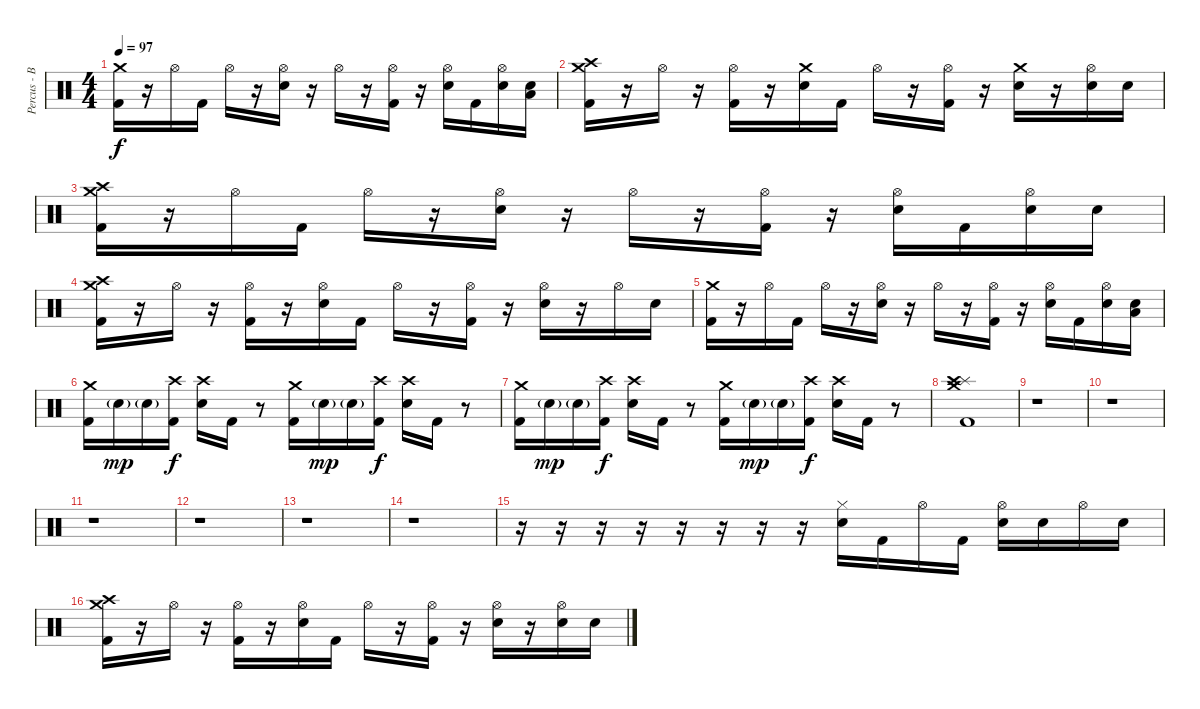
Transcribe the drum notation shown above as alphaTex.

\track ("Percus - Ben" "Percus - B") {instrument percussion}
\staff {score}
\articulation defaults
\ts (4 4)
\tempo 97
\clef neutral
\ks c
("Crash medium (hit)" "Kick (hit) 2").16{dy f} r.16 "Hi-Hat (open)".16 "Kick (hit) 2".16 "Hi-Hat (open)".16 r.16 ("Hi-Hat (open)" "Electric Snare (hit)").16 r.16 "Hi-Hat (open)".16 r.16 ("Hi-Hat (open)" "Kick (hit) 2").16 r.16 ("Hi-Hat (open)" "Electric Snare (hit)").16 "Kick (hit) 2".16 ("Hi-Hat (open)" "Electric Snare (hit)").16 ("Low Tom (hit)" "Electric Snare (hit)").16 |
("Crash high (hit)" "Crash medium (hit)" "Kick (hit) 2").16 r.16 "Hi-Hat (open)".16 r.16 ("Hi-Hat (open)" "Kick (hit) 2").16 r.16 ("Crash medium (hit)" "Electric Snare (hit)").16 "Kick (hit) 2".16 "Hi-Hat (open)".16 r.16 ("Hi-Hat (open)" "Kick (hit) 2").16 r.16 ("Crash medium (hit)" "Electric Snare (hit)").16 r.16 ("Hi-Hat (open)" "Electric Snare (hit)").16 "Electric Snare (hit)".16 |
("Crash high (hit)" "Crash medium (hit)" "Kick (hit) 2").16 r.16 "Hi-Hat (open)".16 "Kick (hit) 2".16 "Hi-Hat (open)".16 r.16 ("Hi-Hat (open)" "Electric Snare (hit)").16 r.16 "Hi-Hat (open)".16 r.16 ("Hi-Hat (open)" "Kick (hit) 2").16 r.16 ("Hi-Hat (open)" "Electric Snare (hit)").16 "Kick (hit) 2".16 ("Hi-Hat (open)" "Electric Snare (hit)").16 "Electric Snare (hit)".16 |
("Crash high (hit)" "Crash medium (hit)" "Kick (hit) 2").16 r.16 "Hi-Hat (open)".16 r.16 ("Hi-Hat (open)" "Kick (hit) 2").16 r.16 ("Hi-Hat (open)" "Electric Snare (hit)").16 "Kick (hit) 2".16 "Hi-Hat (open)".16 r.16 ("Hi-Hat (open)" "Kick (hit) 2").16 r.16 ("Hi-Hat (open)" "Electric Snare (hit)").16 r.16 "Hi-Hat (open)".16 "Electric Snare (hit)".16 |
("Crash medium (hit)" "Kick (hit) 2").16 r.16 "Hi-Hat (open)".16 "Kick (hit) 2".16 "Hi-Hat (open)".16 r.16 ("Hi-Hat (open)" "Electric Snare (hit)").16 r.16 "Hi-Hat (open)".16 r.16 ("Hi-Hat (open)" "Kick (hit) 2").16 r.16 ("Hi-Hat (open)" "Electric Snare (hit)").16 "Kick (hit) 2".16 ("Hi-Hat (open)" "Electric Snare (hit)").16 ("Low Tom (hit)" "Electric Snare (hit)").16 |
("Crash medium (hit)" "Kick (hit) 2").16 "Electric Snare (hit)"{g}.16{dy mp} "Electric Snare (hit)"{g}.16 ("Crash high (hit)" "Kick (hit) 2").16{dy f} ("Crash high (hit)" "Electric Snare (hit)").16 "Kick (hit) 2".16 r.8 ("Crash medium (hit)" "Kick (hit) 2").16 "Electric Snare (hit)"{g}.16{dy mp} "Electric Snare (hit)"{g}.16 ("Crash high (hit)" "Kick (hit) 2").16{dy f} ("Crash high (hit)" "Electric Snare (hit)").16 "Kick (hit) 2".16 r.8 |
("Crash medium (hit)" "Kick (hit) 2").16 "Electric Snare (hit)"{g}.16{dy mp} "Electric Snare (hit)"{g}.16 ("Crash high (hit)" "Kick (hit) 2").16{dy f} ("Crash high (hit)" "Electric Snare (hit)").16 "Kick (hit) 2".16 r.8 ("Crash medium (hit)" "Kick (hit) 2").16 "Electric Snare (hit)"{g}.16{dy mp} "Electric Snare (hit)"{g}.16 ("Crash high (hit)" "Kick (hit) 2").16{dy f} ("Crash high (hit)" "Electric Snare (hit)").16 "Kick (hit) 2".16 r.8 |
("Splash (hit)" "Crash high (hit)" "Crash medium (hit)" "Kick (hit) 2").1 |
r.1 |
r.1 |
r.1 |
r.1 |
r.1 |
r.1 |
r.16 r.16 r.16 r.16 r.16 r.16 r.16 r.16 ("Hi-Hat (closed)" "Electric Snare (hit)").16 "Kick (hit) 2".16 "Hi-Hat (open)".16 "Kick (hit) 2".16 ("Hi-Hat (open)" "Electric Snare (hit)").16 "Electric Snare (hit)".16 "Hi-Hat (open)".16 "Electric Snare (hit)".16 |
("Crash high (hit)" "Crash medium (hit)" "Kick (hit) 2").16 r.16 "Hi-Hat (open)".16 r.16 ("Hi-Hat (open)" "Kick (hit) 2").16 r.16 ("Hi-Hat (open)" "Electric Snare (hit)").16 "Kick (hit) 2".16 "Hi-Hat (open)".16 r.16 ("Hi-Hat (open)" "Kick (hit) 2").16 r.16 ("Hi-Hat (open)" "Electric Snare (hit)").16 r.16 ("Hi-Hat (open)" "Electric Snare (hit)").16 "Electric Snare (hit)".16
